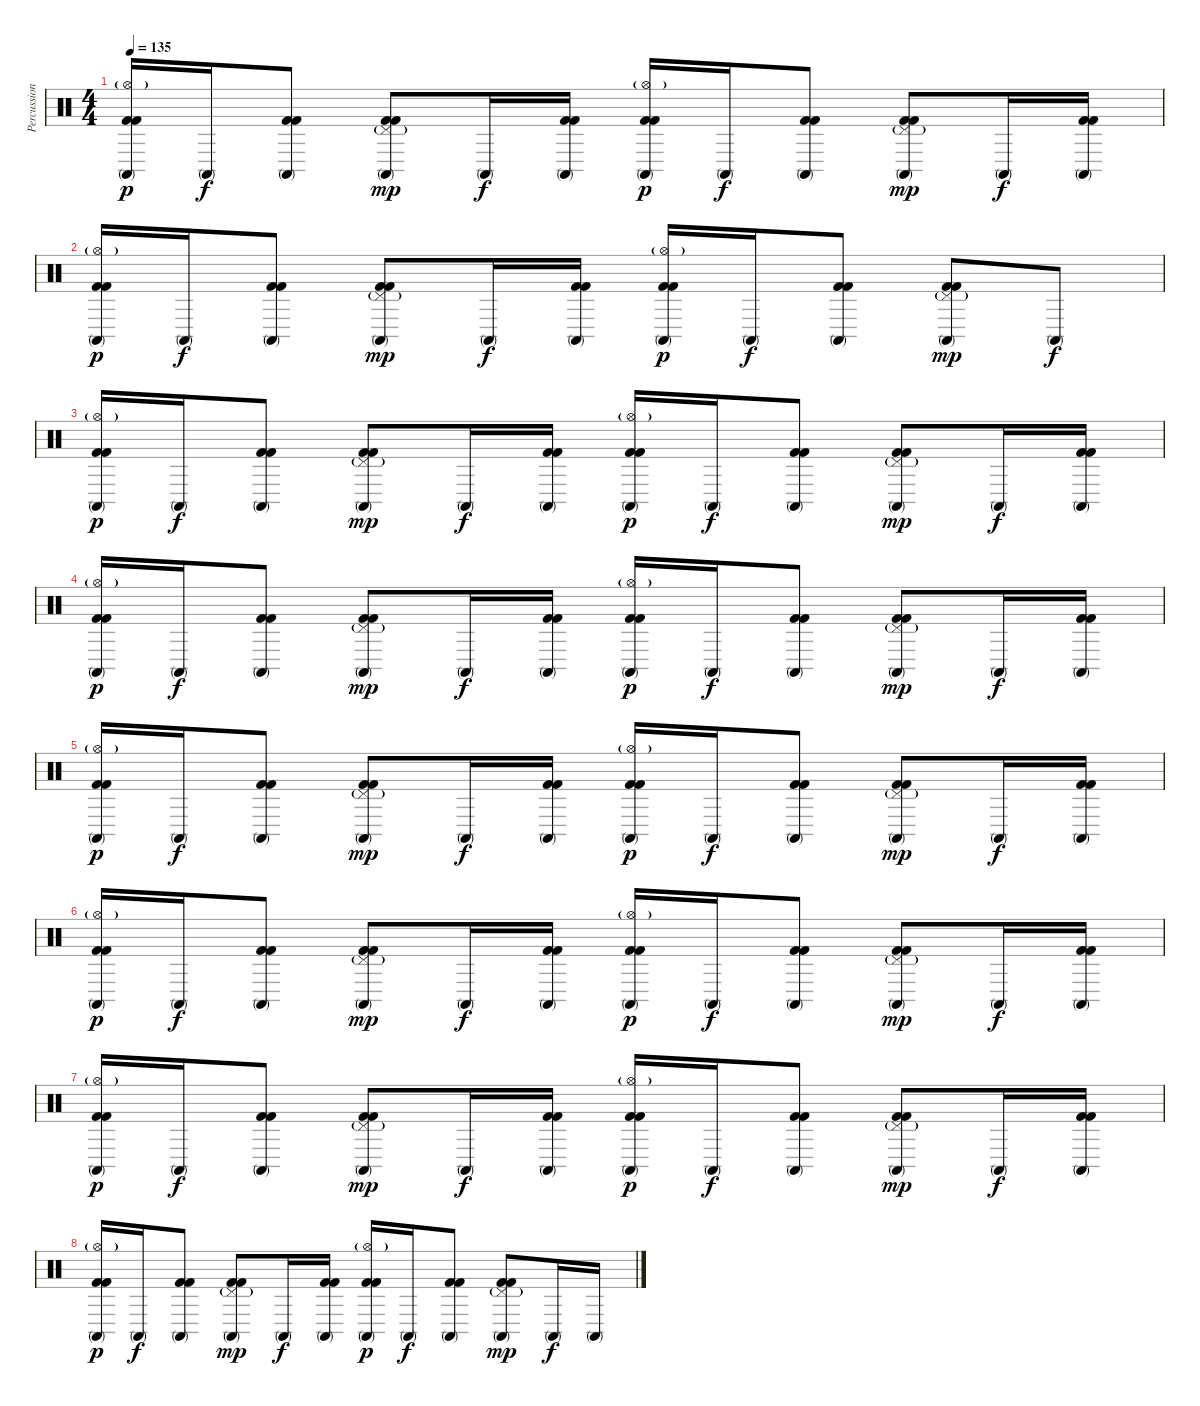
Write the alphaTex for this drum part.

\track ("Percussion" "Percussion") {instrument percussion}
\staff {score}
\articulation defaults
\ts (4 4)
\tempo 135
\clef neutral
\ks c
("Conga high (mute)" "Hi-Hat (open)"{g} "Kick (hit) 2" "Kick (hit) 2").16{dy p} "Conga high (mute)".16{dy f} ("Conga high (mute)" "Kick (hit) 2" "Kick (hit) 2").8 ("Conga high (mute)" "Pedal Hi-Hat (hit)"{g} "Kick (hit) 2" "Kick (hit) 2").8{dy mp} "Conga high (mute)".16{dy f} ("Conga high (mute)" "Kick (hit) 2" "Kick (hit) 2").16 ("Conga high (mute)" "Hi-Hat (open)"{g} "Kick (hit) 2" "Kick (hit) 2").16{dy p} "Conga high (mute)".16{dy f} ("Conga high (mute)" "Kick (hit) 2" "Kick (hit) 2").8 ("Conga high (mute)" "Pedal Hi-Hat (hit)"{g} "Kick (hit) 2" "Kick (hit) 2").8{dy mp} "Conga high (mute)".16{dy f} ("Conga high (mute)" "Kick (hit) 2" "Kick (hit) 2").16 |
("Conga high (mute)" "Hi-Hat (open)"{g} "Kick (hit) 2" "Kick (hit) 2").16{dy p} "Conga high (mute)".16{dy f} ("Conga high (mute)" "Kick (hit) 2" "Kick (hit) 2").8 ("Conga high (mute)" "Pedal Hi-Hat (hit)"{g} "Kick (hit) 2" "Kick (hit) 2").8{dy mp} "Conga high (mute)".16{dy f} ("Conga high (mute)" "Kick (hit) 2" "Kick (hit) 2").16 ("Conga high (mute)" "Hi-Hat (open)"{g} "Kick (hit) 2" "Kick (hit) 2").16{dy p} "Conga high (mute)".16{dy f} ("Conga high (mute)" "Kick (hit) 2" "Kick (hit) 2").8 ("Conga high (mute)" "Pedal Hi-Hat (hit)"{g} "Kick (hit) 2" "Kick (hit) 2").8{dy mp} "Conga high (mute)".8{dy f} |
("Conga high (mute)" "Hi-Hat (open)"{g} "Kick (hit) 2" "Kick (hit) 2").16{dy p} "Conga high (mute)".16{dy f} ("Conga high (mute)" "Kick (hit) 2" "Kick (hit) 2").8 ("Conga high (mute)" "Pedal Hi-Hat (hit)"{g} "Kick (hit) 2" "Kick (hit) 2").8{dy mp} "Conga high (mute)".16{dy f} ("Conga high (mute)" "Kick (hit) 2" "Kick (hit) 2").16 ("Conga high (mute)" "Hi-Hat (open)"{g} "Kick (hit) 2" "Kick (hit) 2").16{dy p} "Conga high (mute)".16{dy f} ("Conga high (mute)" "Kick (hit) 2" "Kick (hit) 2").8 ("Conga high (mute)" "Pedal Hi-Hat (hit)"{g} "Kick (hit) 2" "Kick (hit) 2").8{dy mp} "Conga high (mute)".16{dy f} ("Conga high (mute)" "Kick (hit) 2" "Kick (hit) 2").16 |
("Conga high (mute)" "Hi-Hat (open)"{g} "Kick (hit) 2" "Kick (hit) 2").16{dy p} "Conga high (mute)".16{dy f} ("Conga high (mute)" "Kick (hit) 2" "Kick (hit) 2").8 ("Conga high (mute)" "Pedal Hi-Hat (hit)"{g} "Kick (hit) 2" "Kick (hit) 2").8{dy mp} "Conga high (mute)".16{dy f} ("Conga high (mute)" "Kick (hit) 2" "Kick (hit) 2").16 ("Conga high (mute)" "Hi-Hat (open)"{g} "Kick (hit) 2" "Kick (hit) 2").16{dy p} "Conga high (mute)".16{dy f} ("Conga high (mute)" "Kick (hit) 2" "Kick (hit) 2").8 ("Conga high (mute)" "Pedal Hi-Hat (hit)"{g} "Kick (hit) 2" "Kick (hit) 2").8{dy mp} "Conga high (mute)".16{dy f} ("Conga high (mute)" "Kick (hit) 2" "Kick (hit) 2").16 |
("Conga high (mute)" "Hi-Hat (open)"{g} "Kick (hit) 2" "Kick (hit) 2").16{dy p} "Conga high (mute)".16{dy f} ("Conga high (mute)" "Kick (hit) 2" "Kick (hit) 2").8 ("Conga high (mute)" "Pedal Hi-Hat (hit)"{g} "Kick (hit) 2" "Kick (hit) 2").8{dy mp} "Conga high (mute)".16{dy f} ("Conga high (mute)" "Kick (hit) 2" "Kick (hit) 2").16 ("Conga high (mute)" "Hi-Hat (open)"{g} "Kick (hit) 2" "Kick (hit) 2").16{dy p} "Conga high (mute)".16{dy f} ("Conga high (mute)" "Kick (hit) 2" "Kick (hit) 2").8 ("Conga high (mute)" "Pedal Hi-Hat (hit)"{g} "Kick (hit) 2" "Kick (hit) 2").8{dy mp} "Conga high (mute)".16{dy f} ("Conga high (mute)" "Kick (hit) 2" "Kick (hit) 2").16 |
("Conga high (mute)" "Hi-Hat (open)"{g} "Kick (hit) 2" "Kick (hit) 2").16{dy p} "Conga high (mute)".16{dy f} ("Conga high (mute)" "Kick (hit) 2" "Kick (hit) 2").8 ("Conga high (mute)" "Pedal Hi-Hat (hit)"{g} "Kick (hit) 2" "Kick (hit) 2").8{dy mp} "Conga high (mute)".16{dy f} ("Conga high (mute)" "Kick (hit) 2" "Kick (hit) 2").16 ("Conga high (mute)" "Hi-Hat (open)"{g} "Kick (hit) 2" "Kick (hit) 2").16{dy p} "Conga high (mute)".16{dy f} ("Conga high (mute)" "Kick (hit) 2" "Kick (hit) 2").8 ("Conga high (mute)" "Pedal Hi-Hat (hit)"{g} "Kick (hit) 2" "Kick (hit) 2").8{dy mp} "Conga high (mute)".16{dy f} ("Conga high (mute)" "Kick (hit) 2" "Kick (hit) 2").16 |
("Conga high (mute)" "Hi-Hat (open)"{g} "Kick (hit) 2" "Kick (hit) 2").16{dy p} "Conga high (mute)".16{dy f} ("Conga high (mute)" "Kick (hit) 2" "Kick (hit) 2").8 ("Conga high (mute)" "Pedal Hi-Hat (hit)"{g} "Kick (hit) 2" "Kick (hit) 2").8{dy mp} "Conga high (mute)".16{dy f} ("Conga high (mute)" "Kick (hit) 2" "Kick (hit) 2").16 ("Conga high (mute)" "Hi-Hat (open)"{g} "Kick (hit) 2" "Kick (hit) 2").16{dy p} "Conga high (mute)".16{dy f} ("Conga high (mute)" "Kick (hit) 2" "Kick (hit) 2").8 ("Conga high (mute)" "Pedal Hi-Hat (hit)"{g} "Kick (hit) 2" "Kick (hit) 2").8{dy mp} "Conga high (mute)".16{dy f} ("Conga high (mute)" "Kick (hit) 2" "Kick (hit) 2").16 |
("Conga high (mute)" "Hi-Hat (open)"{g} "Kick (hit) 2" "Kick (hit) 2").16{dy p} "Conga high (mute)".16{dy f} ("Conga high (mute)" "Kick (hit) 2" "Kick (hit) 2").8 ("Conga high (mute)" "Pedal Hi-Hat (hit)"{g} "Kick (hit) 2" "Kick (hit) 2").8{dy mp} "Conga high (mute)".16{dy f} ("Conga high (mute)" "Kick (hit) 2" "Kick (hit) 2").16 ("Conga high (mute)" "Hi-Hat (open)"{g} "Kick (hit) 2" "Kick (hit) 2").16{dy p} "Conga high (mute)".16{dy f} ("Conga high (mute)" "Kick (hit) 2" "Kick (hit) 2").8 ("Conga high (mute)" "Pedal Hi-Hat (hit)"{g} "Kick (hit) 2" "Kick (hit) 2").8{dy mp} "Conga high (mute)".16{dy f} "Conga high (mute)".16
